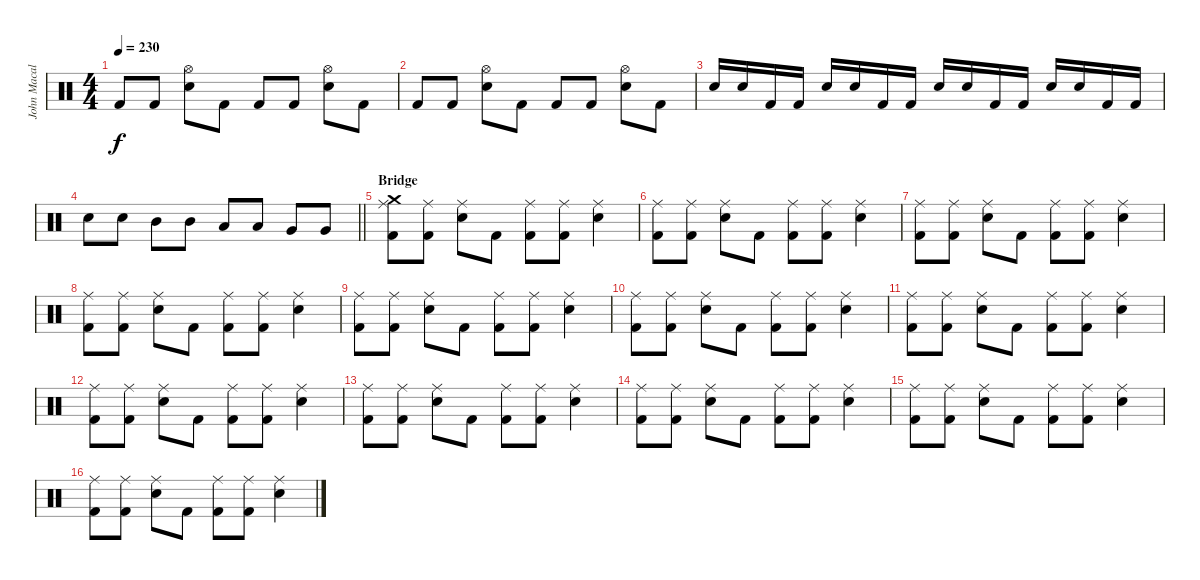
\track ("John Macaluso" "John Macal") {instrument percussion}
\staff {score}
\articulation defaults
\ts (4 4)
\tempo 230
\clef neutral
\ks c "Kick (hit) 2".8{dy f} "Kick (hit) 2".8
("Hi-Hat (open)" "Snare (hit) 2").8 "Kick (hit) 2".8 "Kick (hit) 2".8 "Kick (hit) 2".8 ("Hi-Hat (open)" "Snare (hit) 2").8 "Kick (hit) 2".8 |
"Kick (hit) 2".8 "Kick (hit) 2".8 ("Hi-Hat (open)" "Snare (hit) 2").8 "Kick (hit) 2".8 "Kick (hit) 2".8 "Kick (hit) 2".8 ("Hi-Hat (open)" "Snare (hit) 2").8 "Kick (hit) 2".8 |
"Snare (hit) 2".16 "Snare (hit) 2".16 "Kick (hit) 2".16 "Kick (hit) 2".16 "Snare (hit) 2".16 "Snare (hit) 2".16 "Kick (hit) 2".16 "Kick (hit) 2".16 "Snare (hit) 2".16 "Snare (hit) 2".16 "Kick (hit) 2".16 "Kick (hit) 2".16 "Snare (hit) 2".16 "Snare (hit) 2".16 "Kick (hit) 2".16 "Kick (hit) 2".16 |
\barLineRight lightlight "Snare (hit) 2".8 "Snare (hit) 2".8 "Mid Tom (hit)".8 "Mid Tom (hit)".8 "Low Tom (hit)".8 "Low Tom (hit)".8 "Very Low Tom (hit)".8 "Very Low Tom (hit)".8
|
\section ("" "Bridge")
("Crash medium (hit)" "Ride (middle)" "Kick (hit) 2").8 ("Ride (middle)" "Kick (hit) 2").8 ("Ride (middle)" "Snare (hit) 2").8 "Kick (hit) 2".8 ("Ride (middle)" "Kick (hit) 2").8 ("Ride (middle)" "Kick (hit) 2").8 ("Ride (middle)" "Snare (hit) 2").4 |
("Ride (middle)" "Kick (hit) 2").8 ("Ride (middle)" "Kick (hit) 2").8 ("Ride (middle)" "Snare (hit) 2").8 "Kick (hit) 2".8 ("Ride (middle)" "Kick (hit) 2").8 ("Ride (middle)" "Kick (hit) 2").8 ("Ride (middle)" "Snare (hit) 2").4 |
("Ride (middle)" "Kick (hit) 2").8 ("Ride (middle)" "Kick (hit) 2").8 ("Ride (middle)" "Snare (hit) 2").8 "Kick (hit) 2".8 ("Ride (middle)" "Kick (hit) 2").8 ("Ride (middle)" "Kick (hit) 2").8 ("Ride (middle)" "Snare (hit) 2").4 |
("Ride (middle)" "Kick (hit) 2").8 ("Ride (middle)" "Kick (hit) 2").8 ("Ride (middle)" "Snare (hit) 2").8 "Kick (hit) 2".8 ("Ride (middle)" "Kick (hit) 2").8 ("Ride (middle)" "Kick (hit) 2").8 ("Ride (middle)" "Snare (hit) 2").4 |
("Ride (middle)" "Kick (hit) 2").8 ("Ride (middle)" "Kick (hit) 2").8 ("Ride (middle)" "Snare (hit) 2").8 "Kick (hit) 2".8 ("Ride (middle)" "Kick (hit) 2").8 ("Ride (middle)" "Kick (hit) 2").8 ("Ride (middle)" "Snare (hit) 2").4 |
("Ride (middle)" "Kick (hit) 2").8 ("Ride (middle)" "Kick (hit) 2").8 ("Ride (middle)" "Snare (hit) 2").8 "Kick (hit) 2".8 ("Ride (middle)" "Kick (hit) 2").8 ("Ride (middle)" "Kick (hit) 2").8 ("Ride (middle)" "Snare (hit) 2").4 |
("Ride (middle)" "Kick (hit) 2").8 ("Ride (middle)" "Kick (hit) 2").8 ("Ride (middle)" "Snare (hit) 2").8 "Kick (hit) 2".8 ("Ride (middle)" "Kick (hit) 2").8 ("Ride (middle)" "Kick (hit) 2").8 ("Ride (middle)" "Snare (hit) 2").4 |
("Ride (middle)" "Kick (hit) 2").8 ("Ride (middle)" "Kick (hit) 2").8 ("Ride (middle)" "Snare (hit) 2").8 "Kick (hit) 2".8 ("Ride (middle)" "Kick (hit) 2").8 ("Ride (middle)" "Kick (hit) 2").8 ("Ride (middle)" "Snare (hit) 2").4 |
("Ride (middle)" "Kick (hit) 2").8 ("Ride (middle)" "Kick (hit) 2").8 ("Ride (middle)" "Snare (hit) 2").8 "Kick (hit) 2".8 ("Ride (middle)" "Kick (hit) 2").8 ("Ride (middle)" "Kick (hit) 2").8 ("Ride (middle)" "Snare (hit) 2").4 |
("Ride (middle)" "Kick (hit) 2").8 ("Ride (middle)" "Kick (hit) 2").8 ("Ride (middle)" "Snare (hit) 2").8 "Kick (hit) 2".8 ("Ride (middle)" "Kick (hit) 2").8 ("Ride (middle)" "Kick (hit) 2").8 ("Ride (middle)" "Snare (hit) 2").4 |
("Ride (middle)" "Kick (hit) 2").8 ("Ride (middle)" "Kick (hit) 2").8 ("Ride (middle)" "Snare (hit) 2").8 "Kick (hit) 2".8 ("Ride (middle)" "Kick (hit) 2").8 ("Ride (middle)" "Kick (hit) 2").8 ("Ride (middle)" "Snare (hit) 2").4 |
("Ride (middle)" "Kick (hit) 2").8 ("Ride (middle)" "Kick (hit) 2").8 ("Ride (middle)" "Snare (hit) 2").8 "Kick (hit) 2".8 ("Ride (middle)" "Kick (hit) 2").8 ("Ride (middle)" "Kick (hit) 2").8 ("Ride (middle)" "Snare (hit) 2").4
